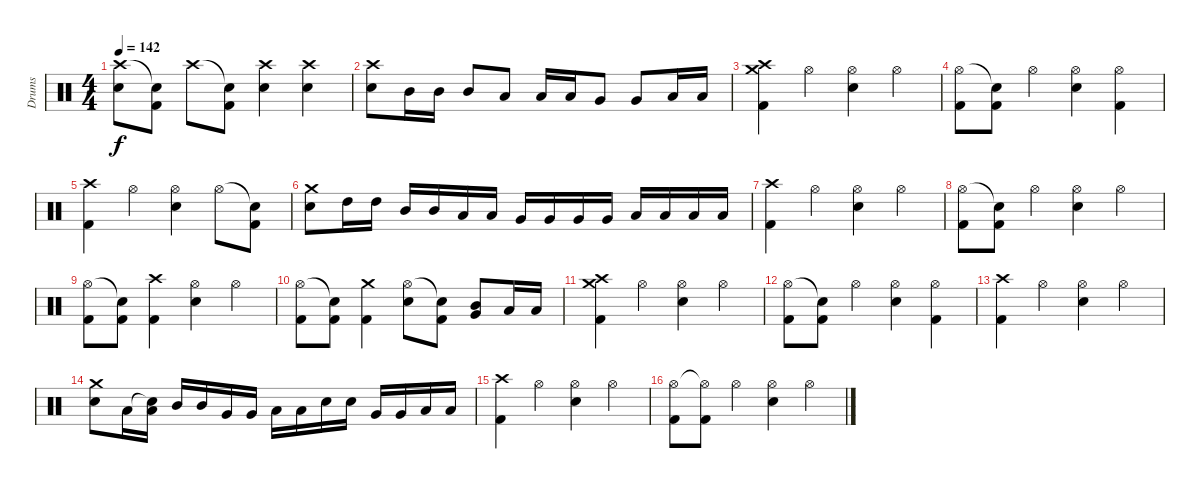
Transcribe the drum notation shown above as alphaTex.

\track ("Drums" "Drums") {instrument percussion}
\staff {score}
\articulation defaults
\ts (4 4)
\tempo 142
\clef neutral
\ks c
("Crash high (hit)" "Snare (hit) 2").8{dy f} ("Snare (hit)"{t} "Kick (hit) 2").8 "Crash high (hit)".8 ("Snare (hit)"{t} "Kick (hit) 2").8 ("Crash high (hit)" "Snare (hit) 2").4 ("Crash high (hit)" "Snare (hit) 2").4 |
("Crash high (hit)" "Snare (hit) 2").8 "Mid Tom (hit)".16 "Mid Tom (hit)".16 "Mid Tom (hit)".8 "Low Tom (hit)".8 "Low Tom (hit)".16 "Low Tom (hit)".16 "Very Low Tom (hit)".8 "Very Low Tom (hit)".8 "Low Floor Tom (hit)".16 "Low Floor Tom (hit)".16 |
("Crash high (hit)" "Crash medium (hit)" "Kick (hit) 2").4 "Hi-Hat (open)".4 ("Hi-Hat (open)" "Snare (hit) 2").4 "Hi-Hat (open)".4 |
("Hi-Hat (open)" "Kick (hit) 2").8 ("Snare (hit)"{t} "Kick (hit) 2").8 "Hi-Hat (open)".4 ("Hi-Hat (open)" "Snare (hit) 2").4 ("Hi-Hat (open)" "Kick (hit) 2").4 |
("Crash high (hit)" "Kick (hit) 2").4 "Hi-Hat (open)".4 ("Hi-Hat (open)" "Snare (hit) 2").4 "Hi-Hat (open)".8 ("Snare (hit)"{t} "Kick (hit) 2").8 |
("Crash medium (hit)" "Snare (hit) 2").8 "High Tom (hit)".16 "High Tom (hit)".16 "Mid Tom (hit)".16 "Mid Tom (hit)".16 "Low Tom (hit)".16 "Low Tom (hit)".16 "Very Low Tom (hit)".16 "Very Low Tom (hit)".16 "Very Low Tom (hit)".16 "Very Low Tom (hit)".16 "Low Floor Tom (hit)".16 "Low Floor Tom (hit)".16 "Low Floor Tom (hit)".16 "Low Floor Tom (hit)".16 |
("Crash high (hit)" "Kick (hit) 2").4 "Hi-Hat (open)".4 ("Hi-Hat (open)" "Snare (hit) 2").4 "Hi-Hat (open)".4 |
("Hi-Hat (open)" "Kick (hit) 2").8 ("Snare (hit)"{t} "Kick (hit) 2").8 "Hi-Hat (open)".4 ("Hi-Hat (open)" "Snare (hit) 2").4 "Hi-Hat (open)".4 |
("Hi-Hat (open)" "Kick (hit) 2").8 ("Snare (hit)"{t} "Kick (hit) 2").8 ("Crash high (hit)" "Kick (hit) 2").4 ("Hi-Hat (open)" "Snare (hit) 2").4 "Hi-Hat (open)".4 |
("Hi-Hat (open)" "Kick (hit) 2").8 ("Snare (hit)"{t} "Kick (hit) 2").8 ("Crash medium (hit)" "Kick (hit) 2").4 ("Hi-Hat (open)" "Snare (hit) 2").8 ("Snare (hit)"{t} "Kick (hit) 2").8 ("Mid Tom (hit)" "Very Low Tom (hit)").8 "Low Tom (hit)".16 "Low Tom (hit)".16 |
("Crash high (hit)" "Crash medium (hit)" "Kick (hit) 2").4 "Hi-Hat (open)".4 ("Hi-Hat (open)" "Snare (hit) 2").4 "Hi-Hat (open)".4 |
("Hi-Hat (open)" "Kick (hit) 2").8 ("Snare (hit)"{t} "Kick (hit) 2").8 "Hi-Hat (open)".4 ("Hi-Hat (open)" "Snare (hit) 2").4 ("Hi-Hat (open)" "Kick (hit) 2").4 |
("Crash high (hit)" "Kick (hit) 2").4 "Hi-Hat (open)".4 ("Hi-Hat (open)" "Snare (hit) 2").4 "Hi-Hat (open)".4 |
("Crash medium (hit)" "Snare (hit) 2").8 "Low Tom (hit)".16 ("Snare (hit)"{t} "Low Tom (hit)").16 "Mid Tom (hit)".16 "Mid Tom (hit)".16 "Very Low Tom (hit)".16 "Very Low Tom (hit)".16 "Low Tom (hit)".16 "Low Tom (hit)".16 "Snare (hit) 2".16 "Snare (hit) 2".16 "Very Low Tom (hit)".16 "Very Low Tom (hit)".16 "Low Floor Tom (hit)".16 "Low Floor Tom (hit)".16 |
("Crash high (hit)" "Kick (hit) 2").4 "Hi-Hat (open)".4 ("Hi-Hat (open)" "Snare (hit) 2").4 "Hi-Hat (open)".4 |
("Hi-Hat (open)" "Kick (hit) 2").8 ("Hi-Hat (open)"{t} "Kick (hit) 2").8 "Hi-Hat (open)".4 ("Hi-Hat (open)" "Snare (hit) 2").4 "Hi-Hat (open)".4
